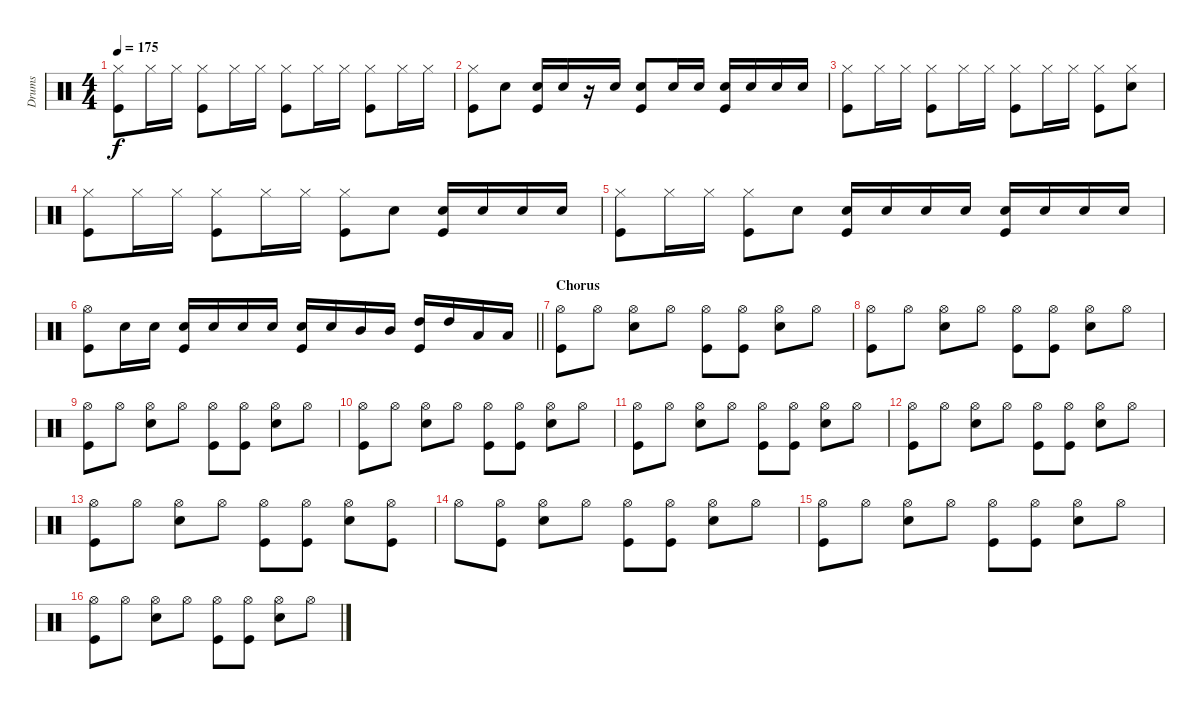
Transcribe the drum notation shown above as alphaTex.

\track ("Drums" "Drums") {instrument percussion}
\staff {score}
\articulation defaults
\ts (4 4)
\tempo 175
\clef neutral
\ks c
("Hi-Hat (closed)" "Kick (hit)").8{dy f} "Hi-Hat (closed)".16 "Hi-Hat (closed)".16 ("Hi-Hat (closed)" "Kick (hit)").8 "Hi-Hat (closed)".16 "Hi-Hat (closed)".16 ("Hi-Hat (closed)" "Kick (hit)").8 "Hi-Hat (closed)".16 "Hi-Hat (closed)".16 ("Hi-Hat (closed)" "Kick (hit)").8 "Hi-Hat (closed)".16 "Hi-Hat (closed)".16 |
("Hi-Hat (closed)" "Kick (hit)").8 "Snare (hit) 2".8 ("Snare (hit) 2" "Kick (hit)").16 "Snare (hit) 2".16 r.16 "Snare (hit) 2".16 ("Snare (hit) 2" "Kick (hit)").8 "Snare (hit) 2".16 "Snare (hit) 2".16 ("Snare (hit) 2" "Kick (hit)").16 "Snare (hit) 2".16 "Snare (hit) 2".16 "Snare (hit) 2".16 |
("Hi-Hat (closed)" "Kick (hit)").8 "Hi-Hat (closed)".16 "Hi-Hat (closed)".16 ("Hi-Hat (closed)" "Kick (hit)").8 "Hi-Hat (closed)".16 "Hi-Hat (closed)".16 ("Hi-Hat (closed)" "Kick (hit)").8 "Hi-Hat (closed)".16 "Hi-Hat (closed)".16 ("Hi-Hat (closed)" "Kick (hit)").8 ("Hi-Hat (closed)" "Snare (hit) 2").8 |
("Hi-Hat (closed)" "Kick (hit)").8 "Hi-Hat (closed)".16 "Hi-Hat (closed)".16 ("Hi-Hat (closed)" "Kick (hit)").8 "Hi-Hat (closed)".16 "Hi-Hat (closed)".16 ("Hi-Hat (closed)" "Kick (hit)").8 "Snare (hit) 2".8 ("Snare (hit) 2" "Kick (hit)").16 "Snare (hit) 2".16 "Snare (hit) 2".16 "Snare (hit) 2".16 |
("Hi-Hat (closed)" "Kick (hit)").8 "Hi-Hat (closed)".16 "Hi-Hat (closed)".16 ("Hi-Hat (closed)" "Kick (hit)").8 "Snare (hit) 2".8 ("Snare (hit) 2" "Kick (hit)").16 "Snare (hit) 2".16 "Snare (hit) 2".16 "Snare (hit) 2".16 ("Snare (hit) 2" "Kick (hit)").16 "Snare (hit) 2".16 "Snare (hit) 2".16 "Snare (hit) 2".16 |
\barLineRight lightlight
("Hi-Hat (open)" "Kick (hit)").8 "Snare (hit) 2".16 "Snare (hit) 2".16 ("Snare (hit) 2" "Kick (hit)").16 "Snare (hit) 2".16 "Snare (hit) 2".16 "Snare (hit) 2".16 ("Snare (hit) 2" "Kick (hit)").16 "Snare (hit) 2".16 "Mid Tom (hit)".16 "Mid Tom (hit)".16 ("High Tom (hit)" "Kick (hit)").16 "High Tom (hit)".16 "Low Tom (hit)".16 "Low Tom (hit)".16 |
\section ("" "Chorus")
("Hi-Hat (open)" "Kick (hit)").8 "Hi-Hat (open)".8 ("Hi-Hat (open)" "Snare (hit) 2").8 "Hi-Hat (open)".8 ("Hi-Hat (open)" "Kick (hit)").8 ("Hi-Hat (open)" "Kick (hit)").8 ("Hi-Hat (open)" "Snare (hit) 2").8 "Hi-Hat (open)".8 |
("Hi-Hat (open)" "Kick (hit)").8 "Hi-Hat (open)".8 ("Hi-Hat (open)" "Snare (hit) 2").8 "Hi-Hat (open)".8 ("Hi-Hat (open)" "Kick (hit)").8 ("Hi-Hat (open)" "Kick (hit)").8 ("Hi-Hat (open)" "Snare (hit) 2").8 "Hi-Hat (open)".8 |
("Hi-Hat (open)" "Kick (hit)").8 "Hi-Hat (open)".8 ("Hi-Hat (open)" "Snare (hit) 2").8 "Hi-Hat (open)".8 ("Hi-Hat (open)" "Kick (hit)").8 ("Hi-Hat (open)" "Kick (hit)").8 ("Hi-Hat (open)" "Snare (hit) 2").8 "Hi-Hat (open)".8 |
("Hi-Hat (open)" "Kick (hit)").8 "Hi-Hat (open)".8 ("Hi-Hat (open)" "Snare (hit) 2").8 "Hi-Hat (open)".8 ("Hi-Hat (open)" "Kick (hit)").8 ("Hi-Hat (open)" "Kick (hit)").8 ("Hi-Hat (open)" "Snare (hit) 2").8 "Hi-Hat (open)".8 |
("Hi-Hat (open)" "Kick (hit)").8 "Hi-Hat (open)".8 ("Hi-Hat (open)" "Snare (hit) 2").8 "Hi-Hat (open)".8 ("Hi-Hat (open)" "Kick (hit)").8 ("Hi-Hat (open)" "Kick (hit)").8 ("Hi-Hat (open)" "Snare (hit) 2").8 "Hi-Hat (open)".8 |
("Hi-Hat (open)" "Kick (hit)").8 "Hi-Hat (open)".8 ("Hi-Hat (open)" "Snare (hit) 2").8 "Hi-Hat (open)".8 ("Hi-Hat (open)" "Kick (hit)").8 ("Hi-Hat (open)" "Kick (hit)").8 ("Hi-Hat (open)" "Snare (hit) 2").8 "Hi-Hat (open)".8 |
("Hi-Hat (open)" "Kick (hit)").8 "Hi-Hat (open)".8 ("Hi-Hat (open)" "Snare (hit) 2").8 "Hi-Hat (open)".8 ("Hi-Hat (open)" "Kick (hit)").8 ("Hi-Hat (open)" "Kick (hit)").8 ("Hi-Hat (open)" "Snare (hit) 2").8 ("Hi-Hat (open)" "Kick (hit)").8 |
"Hi-Hat (open)".8 ("Hi-Hat (open)" "Kick (hit)").8 ("Hi-Hat (open)" "Snare (hit) 2").8 "Hi-Hat (open)".8 ("Hi-Hat (open)" "Kick (hit)").8 ("Hi-Hat (open)" "Kick (hit)").8 ("Hi-Hat (open)" "Snare (hit) 2").8 "Hi-Hat (open)".8 |
("Hi-Hat (open)" "Kick (hit)").8 "Hi-Hat (open)".8 ("Hi-Hat (open)" "Snare (hit) 2").8 "Hi-Hat (open)".8 ("Hi-Hat (open)" "Kick (hit)").8 ("Hi-Hat (open)" "Kick (hit)").8 ("Hi-Hat (open)" "Snare (hit) 2").8 "Hi-Hat (open)".8 |
("Hi-Hat (open)" "Kick (hit)").8 "Hi-Hat (open)".8 ("Hi-Hat (open)" "Snare (hit) 2").8 "Hi-Hat (open)".8 ("Hi-Hat (open)" "Kick (hit)").8 ("Hi-Hat (open)" "Kick (hit)").8 ("Hi-Hat (open)" "Snare (hit) 2").8 "Hi-Hat (open)".8
